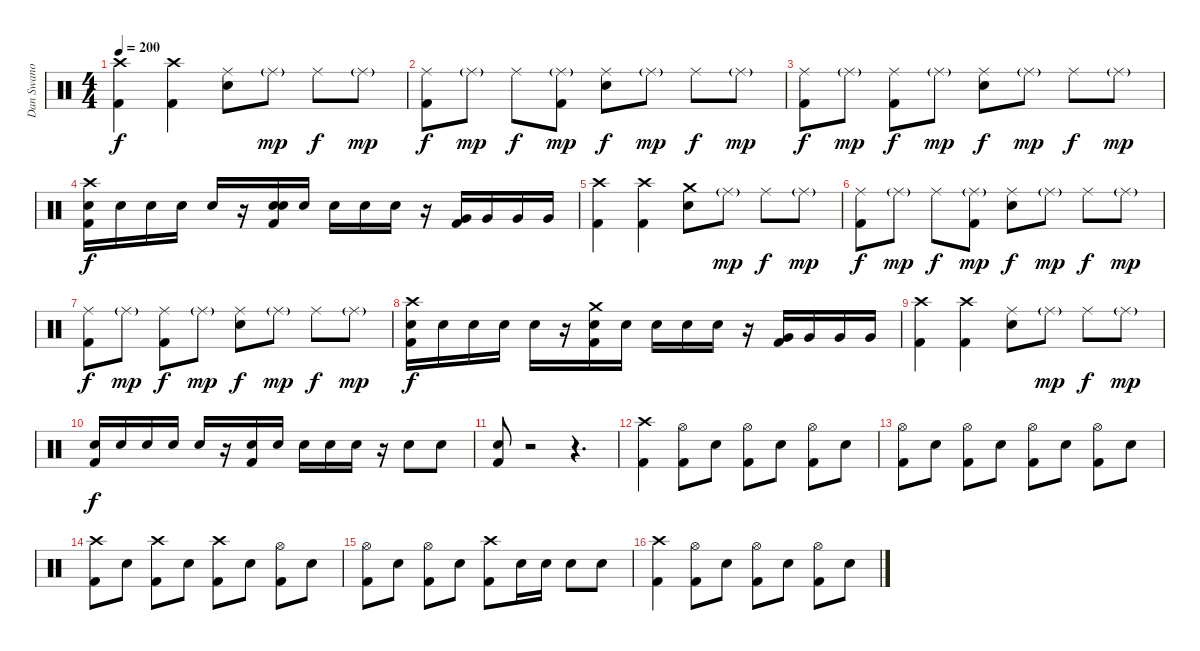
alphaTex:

\track ("Dan Swano" "Dan Swano") {instrument percussion}
\staff {score}
\articulation defaults
\ts (4 4)
\tempo 200
\clef neutral
\ks c
("Crash high (hit)" "Kick (hit) 2").4{dy f} ("Crash high (hit)" "Kick (hit) 2").4 ("Ride (middle)" "Electric Snare (hit)").8 "Ride (middle)"{g}.8{dy mp} "Ride (middle)".8{dy f} "Ride (middle)"{g}.8{dy mp} |
("Ride (middle)" "Kick (hit) 2").8{dy f} "Ride (middle)"{g}.8{dy mp} "Ride (middle)".8{dy f} ("Ride (middle)"{g} "Kick (hit) 2").8{dy mp} ("Ride (middle)" "Electric Snare (hit)").8{dy f} "Ride (middle)"{g}.8{dy mp} "Ride (middle)".8{dy f} "Ride (middle)"{g}.8{dy mp} |
("Ride (middle)" "Kick (hit) 2").8{dy f} "Ride (middle)"{g}.8{dy mp} ("Ride (middle)" "Kick (hit) 2").8{dy f} "Ride (middle)"{g}.8{dy mp} ("Ride (middle)" "Electric Snare (hit)").8{dy f} "Ride (middle)"{g}.8{dy mp} "Ride (middle)".8{dy f} "Ride (middle)"{g}.8{dy mp} |
("Crash high (hit)" "Electric Snare (hit)" "Kick (hit) 2").16{dy f} "Electric Snare (hit)".16 "Electric Snare (hit)".16 "Electric Snare (hit)".16 "Electric Snare (hit)".16 r.16 ("Electric Snare (hit)" "Electric Snare (hit)" "Kick (hit) 2").16 "Electric Snare (hit)".16 "Electric Snare (hit)".16 "Electric Snare (hit)".16 "Electric Snare (hit)".16 r.16 ("Very Low Tom (hit)" "Kick (hit) 2").16 "Very Low Tom (hit)".16 "Very Low Tom (hit)".16 "Very Low Tom (hit)".16 |
("Crash high (hit)" "Kick (hit) 2").4 ("Crash high (hit)" "Kick (hit) 2").4 ("Crash medium (hit)" "Electric Snare (hit)").8 "Ride (middle)"{g}.8{dy mp} "Ride (middle)".8{dy f} "Ride (middle)"{g}.8{dy mp} |
("Ride (middle)" "Kick (hit) 2").8{dy f} "Ride (middle)"{g}.8{dy mp} "Ride (middle)".8{dy f} ("Ride (middle)"{g} "Kick (hit) 2").8{dy mp} ("Ride (middle)" "Electric Snare (hit)").8{dy f} "Ride (middle)"{g}.8{dy mp} "Ride (middle)".8{dy f} "Ride (middle)"{g}.8{dy mp} |
("Ride (middle)" "Kick (hit) 2").8{dy f} "Ride (middle)"{g}.8{dy mp} ("Ride (middle)" "Kick (hit) 2").8{dy f} "Ride (middle)"{g}.8{dy mp} ("Ride (middle)" "Electric Snare (hit)").8{dy f} "Ride (middle)"{g}.8{dy mp} "Ride (middle)".8{dy f} "Ride (middle)"{g}.8{dy mp} |
("Crash high (hit)" "Electric Snare (hit)" "Kick (hit) 2").16{dy f} "Electric Snare (hit)".16 "Electric Snare (hit)".16 "Electric Snare (hit)".16 "Electric Snare (hit)".16 r.16 ("Crash medium (hit)" "Electric Snare (hit)" "Kick (hit) 2").16 "Electric Snare (hit)".16 "Electric Snare (hit)".16 "Electric Snare (hit)".16 "Electric Snare (hit)".16 r.16 ("Very Low Tom (hit)" "Kick (hit) 2").16 "Very Low Tom (hit)".16 "Very Low Tom (hit)".16 "Very Low Tom (hit)".16 |
("Crash high (hit)" "Kick (hit) 2").4 ("Crash high (hit)" "Kick (hit) 2").4 ("Ride (middle)" "Electric Snare (hit)").8 "Ride (middle)"{g}.8{dy mp} "Ride (middle)".8{dy f} "Ride (middle)"{g}.8{dy mp} |
("Electric Snare (hit)" "Kick (hit) 2").16{dy f} "Electric Snare (hit)".16 "Electric Snare (hit)".16 "Electric Snare (hit)".16 "Electric Snare (hit)".16 r.16 ("Electric Snare (hit)" "Kick (hit) 2").16 "Electric Snare (hit)".16 "Electric Snare (hit)".16 "Electric Snare (hit)".16 "Electric Snare (hit)".16 r.16 "Electric Snare (hit)".8 "Electric Snare (hit)".8 |
("Electric Snare (hit)" "Kick (hit) 2").8 r.2 r.4{d} |
("Crash high (hit)" "Kick (hit) 2").4 ("Hi-Hat (open)" "Kick (hit) 2").8 "Electric Snare (hit)".8 ("Hi-Hat (open)" "Kick (hit) 2").8 "Electric Snare (hit)".8 ("Hi-Hat (open)" "Kick (hit) 2").8 "Electric Snare (hit)".8 |
("Hi-Hat (open)" "Kick (hit) 2").8 "Electric Snare (hit)".8 ("Hi-Hat (open)" "Kick (hit) 2").8 "Electric Snare (hit)".8 ("Hi-Hat (open)" "Kick (hit) 2").8 "Electric Snare (hit)".8 ("Hi-Hat (open)" "Kick (hit) 2").8 "Electric Snare (hit)".8 |
("Crash high (hit)" "Kick (hit) 2").8 "Electric Snare (hit)".8 ("Crash high (hit)" "Kick (hit) 2").8 "Electric Snare (hit)".8 ("Crash high (hit)" "Kick (hit) 2").8 "Electric Snare (hit)".8 ("Hi-Hat (open)" "Kick (hit) 2").8 "Electric Snare (hit)".8 |
("Hi-Hat (open)" "Kick (hit) 2").8 "Electric Snare (hit)".8 ("Hi-Hat (open)" "Kick (hit) 2").8 "Electric Snare (hit)".8 ("Crash high (hit)" "Kick (hit) 2").8 "Electric Snare (hit)".16 "Electric Snare (hit)".16 "Electric Snare (hit)".8 "Electric Snare (hit)".8 |
("Crash high (hit)" "Kick (hit) 2").4 ("Hi-Hat (open)" "Kick (hit) 2").8 "Electric Snare (hit)".8 ("Hi-Hat (open)" "Kick (hit) 2").8 "Electric Snare (hit)".8 ("Hi-Hat (open)" "Kick (hit) 2").8 "Electric Snare (hit)".8
